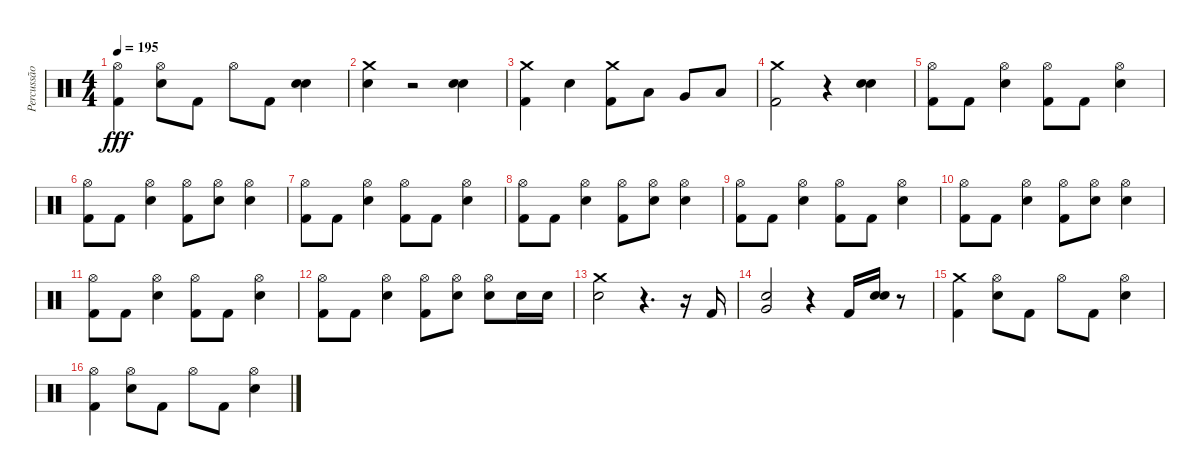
\track ("Percussão" "Percussão") {instrument percussion}
\staff {score}
\articulation defaults
\ts (4 4)
\tempo 195
\clef neutral
\ks c
("Hi-Hat (open)" "Kick (hit) 2").4{dy fff} ("Hi-Hat (open)" "Electric Snare (hit)").8 "Kick (hit) 2".8 "Hi-Hat (open)".8 "Kick (hit) 2".8 ("Electric Snare (hit)" "Electric Snare (hit)").4{bd 240} |
("Crash medium (hit)" "Electric Snare (hit)").4 r.2 ("Electric Snare (hit)" "Electric Snare (hit)").4{bd 240} |
("Crash medium (hit)" "Kick (hit) 2").4 "Electric Snare (hit)".4 ("Crash medium (hit)" "Kick (hit) 2").8 "Low Tom (hit)".8 "Very Low Tom (hit)".8 "Low Floor Tom (hit)".8 |
("Crash medium (hit)" "Kick (hit) 2").2 r.4 ("Electric Snare (hit)" "Electric Snare (hit)").4{bd 240} |
("Hi-Hat (open)" "Kick (hit) 2").8 "Kick (hit) 2".8 ("Hi-Hat (open)" "Electric Snare (hit)").4 ("Hi-Hat (open)" "Kick (hit) 2").8 "Kick (hit) 2".8 ("Hi-Hat (open)" "Electric Snare (hit)").4 |
("Hi-Hat (open)" "Kick (hit) 2").8 "Kick (hit) 2".8 ("Hi-Hat (open)" "Electric Snare (hit)").4 ("Hi-Hat (open)" "Kick (hit) 2").8 ("Hi-Hat (open)" "Electric Snare (hit)").8 ("Hi-Hat (open)" "Electric Snare (hit)").4 |
("Hi-Hat (open)" "Kick (hit) 2").8 "Kick (hit) 2".8 ("Hi-Hat (open)" "Electric Snare (hit)").4 ("Hi-Hat (open)" "Kick (hit) 2").8 "Kick (hit) 2".8 ("Hi-Hat (open)" "Electric Snare (hit)").4 |
("Hi-Hat (open)" "Kick (hit) 2").8 "Kick (hit) 2".8 ("Hi-Hat (open)" "Electric Snare (hit)").4 ("Hi-Hat (open)" "Kick (hit) 2").8 ("Hi-Hat (open)" "Electric Snare (hit)").8 ("Hi-Hat (open)" "Electric Snare (hit)").4 |
("Hi-Hat (open)" "Kick (hit) 2").8 "Kick (hit) 2".8 ("Hi-Hat (open)" "Electric Snare (hit)").4 ("Hi-Hat (open)" "Kick (hit) 2").8 "Kick (hit) 2".8 ("Hi-Hat (open)" "Electric Snare (hit)").4 |
("Hi-Hat (open)" "Kick (hit) 2").8 "Kick (hit) 2".8 ("Hi-Hat (open)" "Electric Snare (hit)").4 ("Hi-Hat (open)" "Kick (hit) 2").8 ("Hi-Hat (open)" "Electric Snare (hit)").8 ("Hi-Hat (open)" "Electric Snare (hit)").4 |
("Hi-Hat (open)" "Kick (hit) 2").8 "Kick (hit) 2".8 ("Hi-Hat (open)" "Electric Snare (hit)").4 ("Hi-Hat (open)" "Kick (hit) 2").8 "Kick (hit) 2".8 ("Hi-Hat (open)" "Electric Snare (hit)").4 |
("Hi-Hat (open)" "Kick (hit) 2").8 "Kick (hit) 2".8 ("Hi-Hat (open)" "Electric Snare (hit)").4 ("Hi-Hat (open)" "Kick (hit) 2").8 ("Hi-Hat (open)" "Electric Snare (hit)").8 ("Hi-Hat (open)" "Electric Snare (hit)").8 "Electric Snare (hit)".16 "Electric Snare (hit)".16 |
("Crash medium (hit)" "Electric Snare (hit)").2 r.4{d} r.16 "Kick (hit) 2".16 |
("Very Low Tom (hit)" "Electric Snare (hit)").2{bd 240} r.4 "Kick (hit) 2".16 ("Electric Snare (hit)" "Electric Snare (hit)").16{bd 240} r.8 |
("Crash medium (hit)" "Kick (hit) 2").4 ("Hi-Hat (open)" "Electric Snare (hit)").8 "Kick (hit) 2".8 "Hi-Hat (open)".8 "Kick (hit) 2".8 ("Hi-Hat (open)" "Electric Snare (hit)").4 |
("Hi-Hat (open)" "Kick (hit) 2").4 ("Hi-Hat (open)" "Electric Snare (hit)").8 "Kick (hit) 2".8 "Hi-Hat (open)".8 "Kick (hit) 2".8 ("Hi-Hat (open)" "Electric Snare (hit)").4
